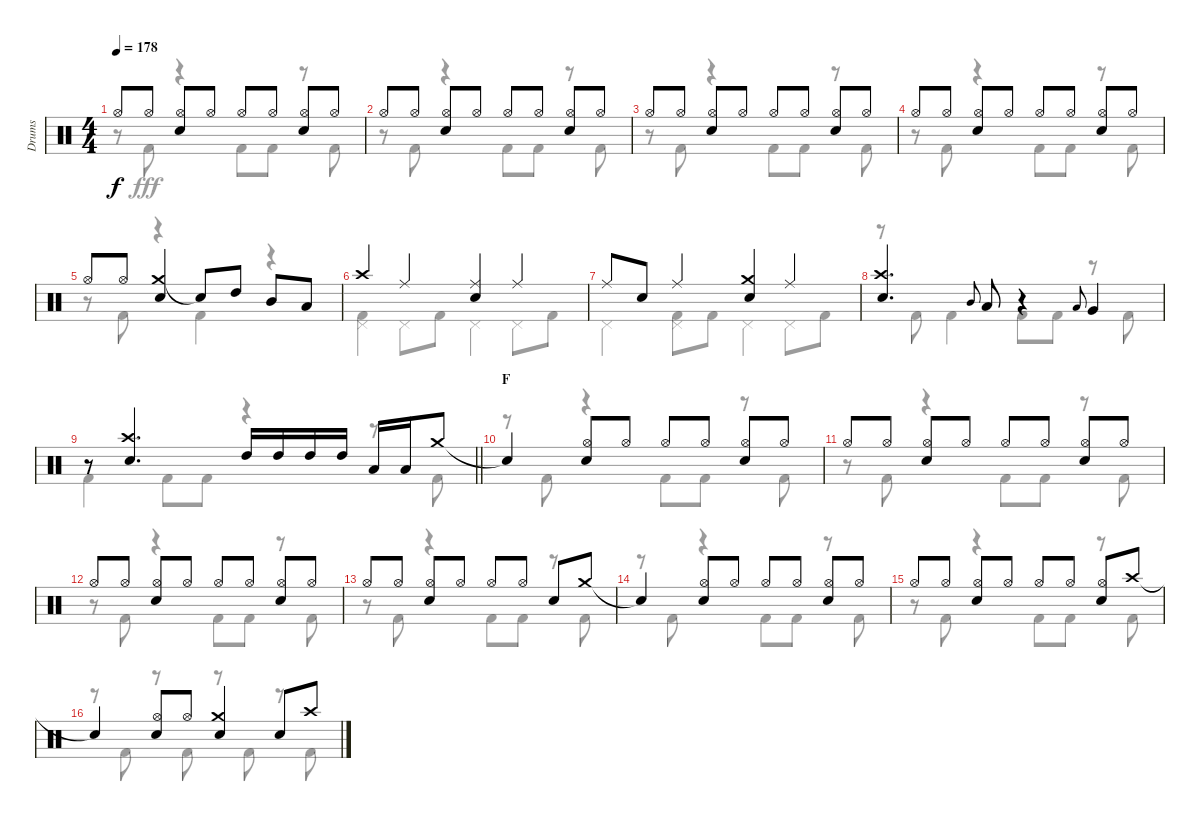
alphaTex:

\track ("Drums" "Drums") {instrument percussion}
\staff {score}
\articulation defaults
\voice
\ts (4 4)
\tempo 178
\clef neutral
\ks c "Hi-Hat (open)".8{dy f} "Hi-Hat (open)".8
("Hi-Hat (open)" "Snare (hit) 2").8 "Hi-Hat (open)".8 "Hi-Hat (open)".8 "Hi-Hat (open)".8 ("Hi-Hat (open)" "Snare (hit) 2").8 "Hi-Hat (open)".8 |
"Hi-Hat (open)".8 "Hi-Hat (open)".8 ("Hi-Hat (open)" "Snare (hit) 2").8 "Hi-Hat (open)".8 "Hi-Hat (open)".8 "Hi-Hat (open)".8 ("Hi-Hat (open)" "Snare (hit) 2").8 "Hi-Hat (open)".8 |
"Hi-Hat (open)".8 "Hi-Hat (open)".8 ("Hi-Hat (open)" "Snare (hit) 2").8 "Hi-Hat (open)".8 "Hi-Hat (open)".8 "Hi-Hat (open)".8 ("Hi-Hat (open)" "Snare (hit) 2").8 "Hi-Hat (open)".8 |
"Hi-Hat (open)".8 "Hi-Hat (open)".8 ("Hi-Hat (open)" "Snare (hit) 2").8 "Hi-Hat (open)".8 "Hi-Hat (open)".8 "Hi-Hat (open)".8 ("Hi-Hat (open)" "Snare (hit) 2").8 "Hi-Hat (open)".8 |
"Hi-Hat (open)".8 "Hi-Hat (open)".8 ("Crash medium (hit)" "Snare (hit) 2").4 "Snare (hit)"{t}.8 "High Tom (hit)".8 "Mid Tom (hit)".8 "Low Tom (hit)".8 |
"Crash high (hit)".4 "Ride (middle)".4 ("Ride (middle)" "Snare (hit) 2").4 "Ride (middle)".4 |
"Ride (middle)".8 "Snare (hit) 2".8 "Ride (middle)".4 ("Crash medium (hit)" "Snare (hit) 2").4 "Ride (middle)".4 |
("Crash high (hit)" "Snare (hit) 2").4{d} "Mid Tom (hit)".8{gr onbeat} "Low Tom (hit)".8 r.4 "Low Tom (hit)".8{gr onbeat} "Very Low Tom (hit)".4 |
\barLineRight lightlight
r.8 ("Crash high (hit)" "Snare (hit) 2").4{d} "High Tom (hit)".16 "High Tom (hit)".16 "High Tom (hit)".16 "High Tom (hit)".16 "Low Tom (hit)".16 "Low Tom (hit)".16 "Crash medium (hit)".8 |
\section ("" "F")
"Snare (hit)"{t}.4 ("Hi-Hat (open)" "Snare (hit) 2").8 "Hi-Hat (open)".8 "Hi-Hat (open)".8 "Hi-Hat (open)".8 ("Hi-Hat (open)" "Snare (hit) 2").8 "Hi-Hat (open)".8 |
"Hi-Hat (open)".8 "Hi-Hat (open)".8 ("Hi-Hat (open)" "Snare (hit) 2").8 "Hi-Hat (open)".8 "Hi-Hat (open)".8 "Hi-Hat (open)".8 ("Hi-Hat (open)" "Snare (hit) 2").8 "Hi-Hat (open)".8 |
"Hi-Hat (open)".8 "Hi-Hat (open)".8 ("Hi-Hat (open)" "Snare (hit) 2").8 "Hi-Hat (open)".8 "Hi-Hat (open)".8 "Hi-Hat (open)".8 ("Hi-Hat (open)" "Snare (hit) 2").8 "Hi-Hat (open)".8 |
"Hi-Hat (open)".8 "Hi-Hat (open)".8 ("Hi-Hat (open)" "Snare (hit) 2").8 "Hi-Hat (open)".8 "Hi-Hat (open)".8 "Hi-Hat (open)".8 "Snare (hit) 2".8 "Crash medium (hit)".8 |
"Snare (hit)"{t}.4 ("Hi-Hat (open)" "Snare (hit) 2").8 "Hi-Hat (open)".8 "Hi-Hat (open)".8 "Hi-Hat (open)".8 ("Hi-Hat (open)" "Snare (hit) 2").8 "Hi-Hat (open)".8 |
"Hi-Hat (open)".8 "Hi-Hat (open)".8 ("Hi-Hat (open)" "Snare (hit) 2").8 "Hi-Hat (open)".8 "Hi-Hat (open)".8 "Hi-Hat (open)".8 ("Hi-Hat (open)" "Snare (hit) 2").8 "Crash high (hit)".8 |
"Snare (hit)"{t}.4 ("Hi-Hat (open)" "Snare (hit) 2").8 "Hi-Hat (open)".8 ("Crash medium (hit)" "Snare (hit) 2").4 "Snare (hit) 2".8 "Crash high (hit)".8
\voice
\clef neutral
\ottava regular
\simile none
\ks c
r.8{dy fff} "Kick (hit) 2".8 r.4 "Kick (hit) 2".8 "Kick (hit) 2".8 r.8 "Kick (hit) 2".8 |
r.8 "Kick (hit) 2".8 r.4 "Kick (hit) 2".8 "Kick (hit) 2".8 r.8 "Kick (hit) 2".8 |
r.8 "Kick (hit) 2".8 r.4 "Kick (hit) 2".8 "Kick (hit) 2".8 r.8 "Kick (hit) 2".8 |
r.8 "Kick (hit) 2".8 r.4 "Kick (hit) 2".8 "Kick (hit) 2".8 r.8 "Kick (hit) 2".8 |
r.8 "Kick (hit) 2".8 r.4 "Kick (hit) 2".4 r.4 |
("Pedal Hi-Hat (hit)" "Kick (hit) 2").4 "Pedal Hi-Hat (hit)".8 "Kick (hit) 2".8 "Pedal Hi-Hat (hit)".4 "Pedal Hi-Hat (hit)".8 "Kick (hit) 2".8 |
"Pedal Hi-Hat (hit)".4 ("Pedal Hi-Hat (hit)" "Kick (hit) 2").8 "Kick (hit) 2".8 "Pedal Hi-Hat (hit)".4 "Pedal Hi-Hat (hit)".8 "Kick (hit) 2".8 |
r.8 "Kick (hit) 2".8 "Kick (hit) 2".4 "Kick (hit) 2".8 "Kick (hit) 2".8 r.8 "Kick (hit) 2".8 |
\barLineRight lightlight "Kick (hit) 2".4 "Kick (hit) 2".8 "Kick (hit) 2".8
r.4 r.8 "Kick (hit) 2".8 |
r.8 "Kick (hit) 2".8 r.4 "Kick (hit) 2".8 "Kick (hit) 2".8 r.8 "Kick (hit) 2".8 |
r.8 "Kick (hit) 2".8 r.4 "Kick (hit) 2".8 "Kick (hit) 2".8 r.8 "Kick (hit) 2".8 |
r.8 "Kick (hit) 2".8 r.4 "Kick (hit) 2".8 "Kick (hit) 2".8 r.8 "Kick (hit) 2".8 |
r.8 "Kick (hit) 2".8 r.4 "Kick (hit) 2".8 "Kick (hit) 2".8 r.8 "Kick (hit) 2".8 |
r.8 "Kick (hit) 2".8 r.4 "Kick (hit) 2".8 "Kick (hit) 2".8 r.8 "Kick (hit) 2".8 |
r.8 "Kick (hit) 2".8 r.4 "Kick (hit) 2".8 "Kick (hit) 2".8 r.8 "Kick (hit) 2".8 |
r.8 "Kick (hit) 2".8 r.8 "Kick (hit) 2".8 r.8 "Kick (hit) 2".8 r.8 "Kick (hit) 2".8
